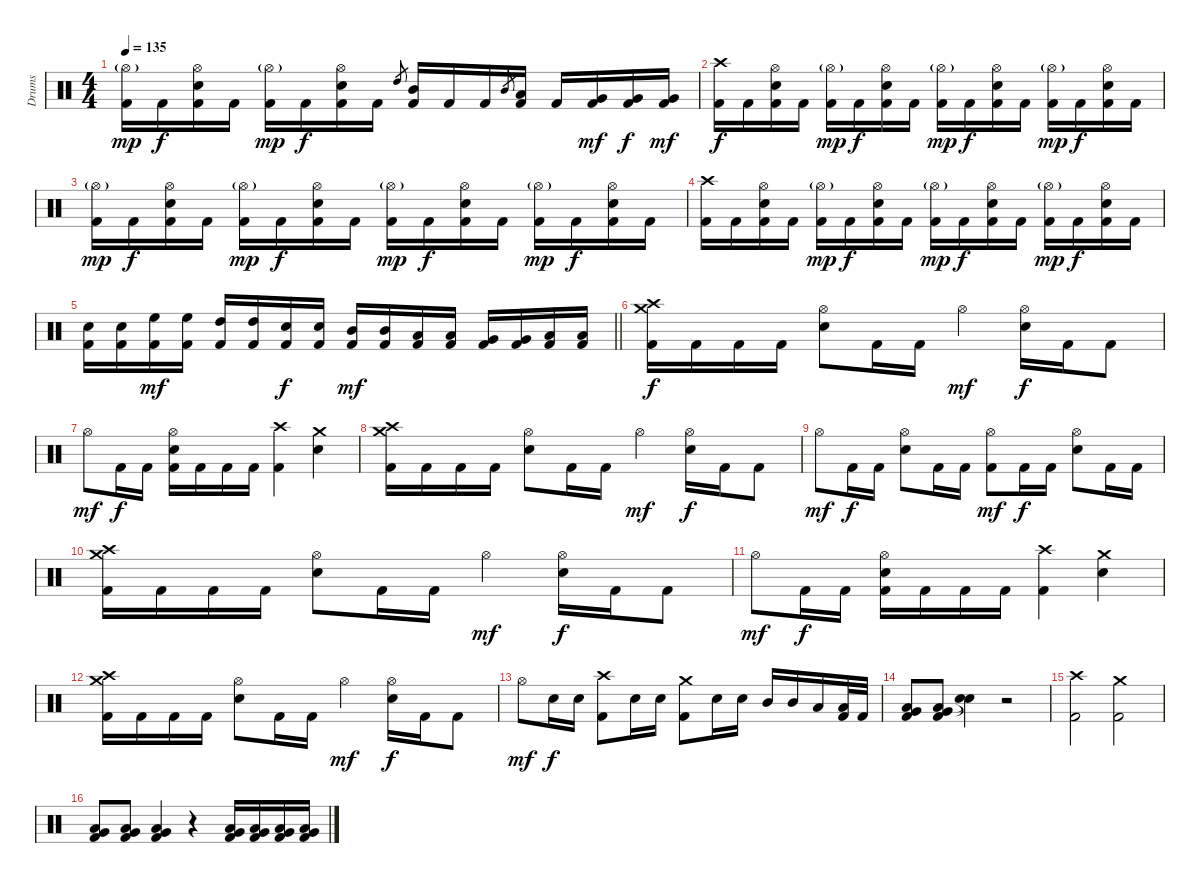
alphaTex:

\track ("Drums" "Drums") {instrument percussion}
\staff {score}
\articulation defaults
\ts (4 4)
\tempo 135
\clef neutral
\ks c
("Hi-Hat (open)"{g} "Kick (hit) 2").16{dy mp} "Kick (hit) 2".16{dy f} ("Hi-Hat (open)" "Electric Snare (hit)" "Kick (hit) 2").16 "Kick (hit) 2".16 ("Hi-Hat (open)"{g} "Kick (hit) 2").16{dy mp} "Kick (hit) 2".16{dy f} ("Hi-Hat (open)" "Electric Snare (hit)" "Kick (hit) 2").16 "Kick (hit) 2".16 "High Tom (hit)".8{gr} ("Mid Tom (hit)" "Kick (hit) 2").16 "Kick (hit) 2".16 "Kick (hit) 2".16 "Mid Tom (hit)".8{gr} ("Low Tom (hit)" "Kick (hit) 2").16 "Kick (hit) 2".16 ("Very Low Tom (hit)" "Kick (hit) 2").16{dy mf} ("Very Low Tom (hit)" "Kick (hit) 2").16{dy f} ("Very Low Tom (hit)" "Kick (hit) 2").16{dy mf} |
("Crash high (hit)" "Kick (hit) 2").16{dy f} "Kick (hit) 2".16 ("Hi-Hat (open)" "Electric Snare (hit)" "Kick (hit) 2").16 "Kick (hit) 2".16 ("Hi-Hat (open)"{g} "Kick (hit) 2").16{dy mp} "Kick (hit) 2".16{dy f} ("Hi-Hat (open)" "Electric Snare (hit)" "Kick (hit) 2").16 "Kick (hit) 2".16 ("Hi-Hat (open)"{g} "Kick (hit) 2").16{dy mp} "Kick (hit) 2".16{dy f} ("Hi-Hat (open)" "Electric Snare (hit)" "Kick (hit) 2").16 "Kick (hit) 2".16 ("Hi-Hat (open)"{g} "Kick (hit) 2").16{dy mp} "Kick (hit) 2".16{dy f} ("Hi-Hat (open)" "Electric Snare (hit)" "Kick (hit) 2").16 "Kick (hit) 2".16 |
("Hi-Hat (open)"{g} "Kick (hit) 2").16{dy mp} "Kick (hit) 2".16{dy f} ("Hi-Hat (open)" "Electric Snare (hit)" "Kick (hit) 2").16 "Kick (hit) 2".16 ("Hi-Hat (open)"{g} "Kick (hit) 2").16{dy mp} "Kick (hit) 2".16{dy f} ("Hi-Hat (open)" "Electric Snare (hit)" "Kick (hit) 2").16 "Kick (hit) 2".16 ("Hi-Hat (open)"{g} "Kick (hit) 2").16{dy mp} "Kick (hit) 2".16{dy f} ("Hi-Hat (open)" "Electric Snare (hit)" "Kick (hit) 2").16 "Kick (hit) 2".16 ("Hi-Hat (open)"{g} "Kick (hit) 2").16{dy mp} "Kick (hit) 2".16{dy f} ("Hi-Hat (open)" "Electric Snare (hit)" "Kick (hit) 2").16 "Kick (hit) 2".16 |
("Crash high (hit)" "Kick (hit) 2").16 "Kick (hit) 2".16 ("Hi-Hat (open)" "Electric Snare (hit)" "Kick (hit) 2").16 "Kick (hit) 2".16 ("Hi-Hat (open)"{g} "Kick (hit) 2").16{dy mp} "Kick (hit) 2".16{dy f} ("Hi-Hat (open)" "Electric Snare (hit)" "Kick (hit) 2").16 "Kick (hit) 2".16 ("Hi-Hat (open)"{g} "Kick (hit) 2").16{dy mp} "Kick (hit) 2".16{dy f} ("Hi-Hat (open)" "Electric Snare (hit)" "Kick (hit) 2").16 "Kick (hit) 2".16 ("Hi-Hat (open)"{g} "Kick (hit) 2").16{dy mp} "Kick (hit) 2".16{dy f} ("Hi-Hat (open)" "Electric Snare (hit)" "Kick (hit) 2").16 "Kick (hit) 2".16 |
\barLineRight lightlight
("Electric Snare (hit)" "Kick (hit) 2").16 ("Electric Snare (hit)" "Kick (hit) 2").16 ("High Floor Tom (hit)" "Kick (hit) 2").16{dy mf} ("High Floor Tom (hit)" "Kick (hit) 2").16 ("High Tom (hit)" "Kick (hit) 2").16 ("High Tom (hit)" "Kick (hit) 2").16 ("Electric Snare (hit)" "Kick (hit) 2").16{dy f} ("Electric Snare (hit)" "Kick (hit) 2").16 ("Mid Tom (hit)" "Kick (hit) 2").16{dy mf} ("Mid Tom (hit)" "Kick (hit) 2").16 ("Low Tom (hit)" "Kick (hit) 2").16 ("Low Tom (hit)" "Kick (hit) 2").16 ("Very Low Tom (hit)" "Kick (hit) 2").16 ("Very Low Tom (hit)" "Kick (hit) 2").16 ("Low Floor Tom (hit)" "Kick (hit) 2").16 ("Low Floor Tom (hit)" "Kick (hit) 2").16 |
("Crash high (hit)" "Crash medium (hit)" "Kick (hit) 2").16{dy f} "Kick (hit) 2".16 "Kick (hit) 2".16 "Kick (hit) 2".16 ("Hi-Hat (open)" "Electric Snare (hit)").8 "Kick (hit) 2".16 "Kick (hit) 2".16 "Hi-Hat (open)".4{dy mf} ("Hi-Hat (open)" "Electric Snare (hit)").16{dy f} "Kick (hit) 2".16 "Kick (hit) 2".8 |
"Hi-Hat (open)".8{dy mf} "Kick (hit) 2".16{dy f} "Kick (hit) 2".16 ("Hi-Hat (open)" "Electric Snare (hit)" "Kick (hit) 2").16 "Kick (hit) 2".16 "Kick (hit) 2".16 "Kick (hit) 2".16 ("Crash high (hit)" "Kick (hit) 2").4 ("Crash medium (hit)" "Electric Snare (hit)").4 |
("Crash high (hit)" "Crash medium (hit)" "Kick (hit) 2").16 "Kick (hit) 2".16 "Kick (hit) 2".16 "Kick (hit) 2".16 ("Hi-Hat (open)" "Electric Snare (hit)").8 "Kick (hit) 2".16 "Kick (hit) 2".16 "Hi-Hat (open)".4{dy mf} ("Hi-Hat (open)" "Electric Snare (hit)").16{dy f} "Kick (hit) 2".16 "Kick (hit) 2".8 |
"Hi-Hat (open)".8{dy mf} "Kick (hit) 2".16{dy f} "Kick (hit) 2".16 ("Hi-Hat (open)" "Electric Snare (hit)").8 "Kick (hit) 2".16 "Kick (hit) 2".16 ("Hi-Hat (open)" "Kick (hit) 2").8{dy mf} "Kick (hit) 2".16{dy f} "Kick (hit) 2".16 ("Hi-Hat (open)" "Electric Snare (hit)").8 "Kick (hit) 2".16 "Kick (hit) 2".16 |
("Crash high (hit)" "Crash medium (hit)" "Kick (hit) 2").16 "Kick (hit) 2".16 "Kick (hit) 2".16 "Kick (hit) 2".16 ("Hi-Hat (open)" "Electric Snare (hit)").8 "Kick (hit) 2".16 "Kick (hit) 2".16 "Hi-Hat (open)".4{dy mf} ("Hi-Hat (open)" "Electric Snare (hit)").16{dy f} "Kick (hit) 2".16 "Kick (hit) 2".8 |
"Hi-Hat (open)".8{dy mf} "Kick (hit) 2".16{dy f} "Kick (hit) 2".16 ("Hi-Hat (open)" "Electric Snare (hit)" "Kick (hit) 2").16 "Kick (hit) 2".16 "Kick (hit) 2".16 "Kick (hit) 2".16 ("Crash high (hit)" "Kick (hit) 2").4 ("Crash medium (hit)" "Electric Snare (hit)").4 |
("Crash high (hit)" "Crash medium (hit)" "Kick (hit) 2").16 "Kick (hit) 2".16 "Kick (hit) 2".16 "Kick (hit) 2".16 ("Hi-Hat (open)" "Electric Snare (hit)").8 "Kick (hit) 2".16 "Kick (hit) 2".16 "Hi-Hat (open)".4{dy mf} ("Hi-Hat (open)" "Electric Snare (hit)").16{dy f} "Kick (hit) 2".16 "Kick (hit) 2".8 |
"Hi-Hat (open)".8{dy mf} "Electric Snare (hit)".16{dy f} "Electric Snare (hit)".16 ("Crash high (hit)" "Kick (hit) 2").8 "Electric Snare (hit)".16 "Electric Snare (hit)".16 ("Crash medium (hit)" "Kick (hit) 2").8 "Electric Snare (hit)".16 "Electric Snare (hit)".16 "Mid Tom (hit)".16 "Mid Tom (hit)".16 "Low Tom (hit)".16 ("Low Tom (hit)" "Kick (hit) 2").32 "Kick (hit) 2".32 |
("Low Tom (hit)" "Very Low Tom (hit)" "Kick (hit) 2").8 ("Low Tom (hit)" "Very Low Tom (hit)" "Kick (hit) 2").8 ("Snare (hit)"{t} "Snare (hit)"{t}).4 r.2 |
("Crash high (hit)" "Kick (hit) 2").2 ("Crash medium (hit)" "Kick (hit) 2").2 |
("Low Tom (hit)" "Very Low Tom (hit)" "Kick (hit) 2").8 ("Low Tom (hit)" "Very Low Tom (hit)" "Kick (hit) 2").8 ("Low Tom (hit)" "Very Low Tom (hit)" "Kick (hit) 2").4 r.4 ("Low Tom (hit)" "Very Low Tom (hit)" "Kick (hit) 2").16 ("Low Tom (hit)" "Very Low Tom (hit)" "Kick (hit) 2").16 ("Low Tom (hit)" "Very Low Tom (hit)" "Kick (hit) 2").16 ("Low Tom (hit)" "Very Low Tom (hit)" "Kick (hit) 2").16
